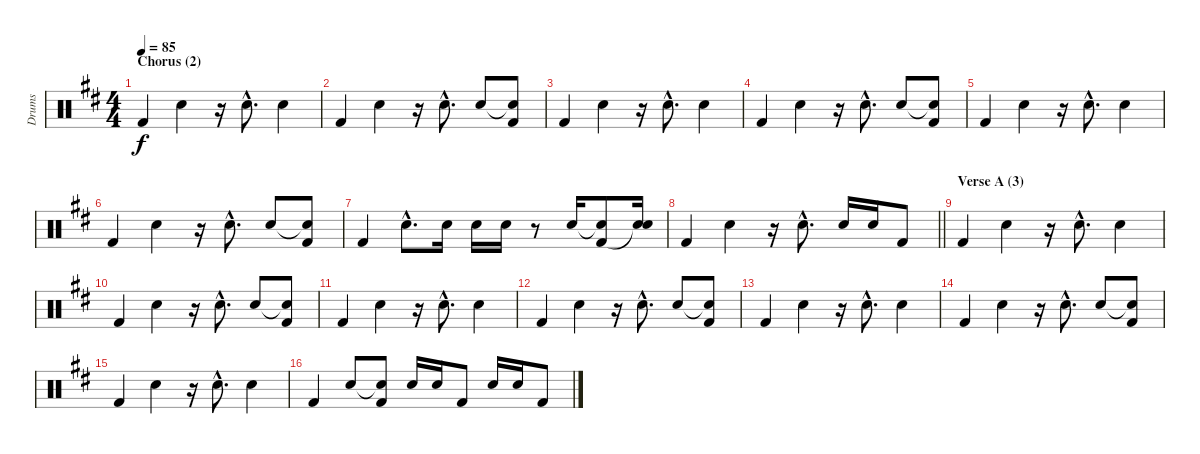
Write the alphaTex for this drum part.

\track ("Drums" "Drums") {instrument percussion}
\staff {score}
\articulation defaults
\ts (4 4)
\section ("" "Chorus (2)")
\tempo 85
\clef neutral
\ks d "Kick (hit) 2".4{dy f} "Electric Snare (hit)".4
r.16 "Electric Snare (hit)"{hac}.8{d} "Electric Snare (hit)".4 |
"Kick (hit) 2".4 "Electric Snare (hit)".4 r.16 "Electric Snare (hit)"{hac}.8{d} "Electric Snare (hit)".8 ("Snare (hit)"{t} "Kick (hit) 2").8 |
"Kick (hit) 2".4 "Electric Snare (hit)".4 r.16 "Electric Snare (hit)"{hac}.8{d} "Electric Snare (hit)".4 |
"Kick (hit) 2".4 "Electric Snare (hit)".4 r.16 "Electric Snare (hit)"{hac}.8{d} "Electric Snare (hit)".8 ("Snare (hit)"{t} "Kick (hit) 2").8 |
"Kick (hit) 2".4 "Electric Snare (hit)".4 r.16 "Electric Snare (hit)"{hac}.8{d} "Electric Snare (hit)".4 |
"Kick (hit) 2".4 "Electric Snare (hit)".4 r.16 "Electric Snare (hit)"{hac}.8{d} "Electric Snare (hit)".8 ("Snare (hit)"{t} "Kick (hit) 2").8 |
"Kick (hit) 2".4 "Electric Snare (hit)"{hac}.8{d} "Electric Snare (hit)".16 "Electric Snare (hit)".16 "Electric Snare (hit)".16 r.8 "Electric Snare (hit)".16 ("Snare (hit)"{t} "Kick (hit) 2").8 ("Electric Snare (hit)" "Snare (hit)"{t}).16 |
\barLineRight lightlight "Kick (hit) 2".4 "Electric Snare (hit)".4
r.16 "Electric Snare (hit)"{hac}.8{d} "Electric Snare (hit)".16 "Electric Snare (hit)".16 "Kick (hit) 2".8 |
\section ("" "Verse A (3)")
"Kick (hit) 2".4 "Electric Snare (hit)".4 r.16 "Electric Snare (hit)"{hac}.8{d} "Electric Snare (hit)".4 |
"Kick (hit) 2".4 "Electric Snare (hit)".4 r.16 "Electric Snare (hit)"{hac}.8{d} "Electric Snare (hit)".8 ("Snare (hit)"{t} "Kick (hit) 2").8 |
"Kick (hit) 2".4 "Electric Snare (hit)".4 r.16 "Electric Snare (hit)"{hac}.8{d} "Electric Snare (hit)".4 |
"Kick (hit) 2".4 "Electric Snare (hit)".4 r.16 "Electric Snare (hit)"{hac}.8{d} "Electric Snare (hit)".8 ("Snare (hit)"{t} "Kick (hit) 2").8 |
"Kick (hit) 2".4 "Electric Snare (hit)".4 r.16 "Electric Snare (hit)"{hac}.8{d} "Electric Snare (hit)".4 |
"Kick (hit) 2".4 "Electric Snare (hit)".4 r.16 "Electric Snare (hit)"{hac}.8{d} "Electric Snare (hit)".8 ("Snare (hit)"{t} "Kick (hit) 2").8 |
"Kick (hit) 2".4 "Electric Snare (hit)".4 r.16 "Electric Snare (hit)"{hac}.8{d} "Electric Snare (hit)".4 |
"Kick (hit) 2".4 "Electric Snare (hit)".8 ("Snare (hit)"{t} "Kick (hit) 2").8 "Electric Snare (hit)".16 "Electric Snare (hit)".16 "Kick (hit) 2".8 "Electric Snare (hit)".16 "Electric Snare (hit)".16 "Kick (hit) 2".8
